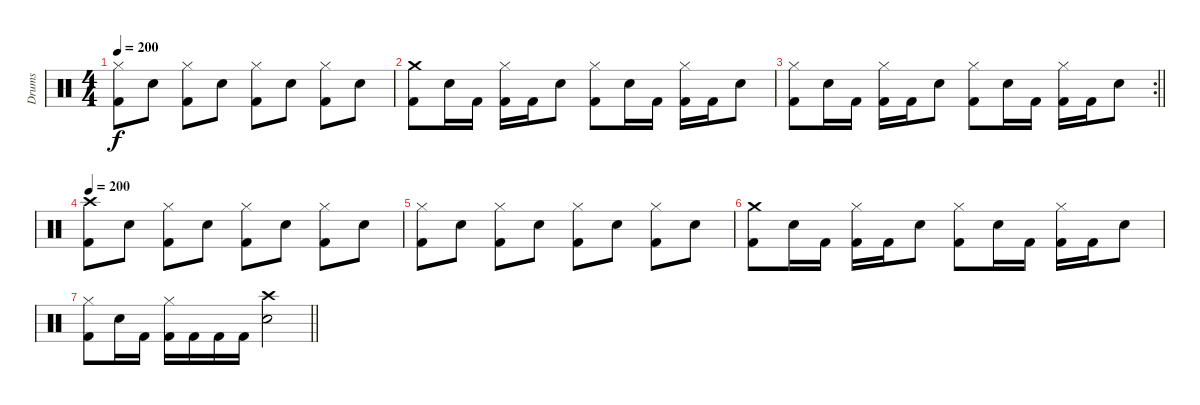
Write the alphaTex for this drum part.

\track ("Drums" "Drums") {instrument percussion}
\staff {score}
\articulation defaults
\ts (4 4)
\tempo 200
\clef neutral
\ks c
("Hi-Hat (closed)" "Kick (hit) 2").8{dy f} "Electric Snare (hit)".8 ("Hi-Hat (closed)" "Kick (hit) 2").8 "Electric Snare (hit)".8 ("Hi-Hat (closed)" "Kick (hit) 2").8 "Electric Snare (hit)".8 ("Hi-Hat (closed)" "Kick (hit) 2").8 "Electric Snare (hit)".8 |
("Crash medium (hit)" "Kick (hit) 2").8 "Electric Snare (hit)".16 "Kick (hit) 2".16 ("Hi-Hat (closed)" "Kick (hit) 2").16 "Kick (hit) 2".16 "Electric Snare (hit)".8 ("Hi-Hat (closed)" "Kick (hit) 2").8 "Electric Snare (hit)".16 "Kick (hit) 2".16 ("Hi-Hat (closed)" "Kick (hit) 2").16 "Kick (hit) 2".16 "Electric Snare (hit)".8 |
\rc 2
\barLineRight lightlight
("Hi-Hat (closed)" "Kick (hit) 2").8 "Electric Snare (hit)".16 "Kick (hit) 2".16 ("Hi-Hat (closed)" "Kick (hit) 2").16 "Kick (hit) 2".16 "Electric Snare (hit)".8 ("Hi-Hat (closed)" "Kick (hit) 2").8 "Electric Snare (hit)".16 "Kick (hit) 2".16 ("Hi-Hat (closed)" "Kick (hit) 2").16 "Kick (hit) 2".16 "Electric Snare (hit)".8 |
\tempo 200
("Crash high (hit)" "Kick (hit) 2").8 "Electric Snare (hit)".8 ("Hi-Hat (closed)" "Kick (hit) 2").8 "Electric Snare (hit)".8 ("Hi-Hat (closed)" "Kick (hit) 2").8 "Electric Snare (hit)".8 ("Hi-Hat (closed)" "Kick (hit) 2").8 "Electric Snare (hit)".8 |
("Hi-Hat (closed)" "Kick (hit) 2").8 "Electric Snare (hit)".8 ("Hi-Hat (closed)" "Kick (hit) 2").8 "Electric Snare (hit)".8 ("Hi-Hat (closed)" "Kick (hit) 2").8 "Electric Snare (hit)".8 ("Hi-Hat (closed)" "Kick (hit) 2").8 "Electric Snare (hit)".8 |
("Crash medium (hit)" "Kick (hit) 2").8 "Electric Snare (hit)".16 "Kick (hit) 2".16 ("Hi-Hat (closed)" "Kick (hit) 2").16 "Kick (hit) 2".16 "Electric Snare (hit)".8 ("Hi-Hat (closed)" "Kick (hit) 2").8 "Electric Snare (hit)".16 "Kick (hit) 2".16 ("Hi-Hat (closed)" "Kick (hit) 2").16 "Kick (hit) 2".16 "Electric Snare (hit)".8 |
\barLineRight lightlight
("Hi-Hat (closed)" "Kick (hit) 2").8 "Electric Snare (hit)".16 "Kick (hit) 2".16 ("Hi-Hat (closed)" "Kick (hit) 2").16 "Kick (hit) 2".16 "Kick (hit) 2".16 "Kick (hit) 2".16 ("Crash high (hit)" "Electric Snare (hit)").2
